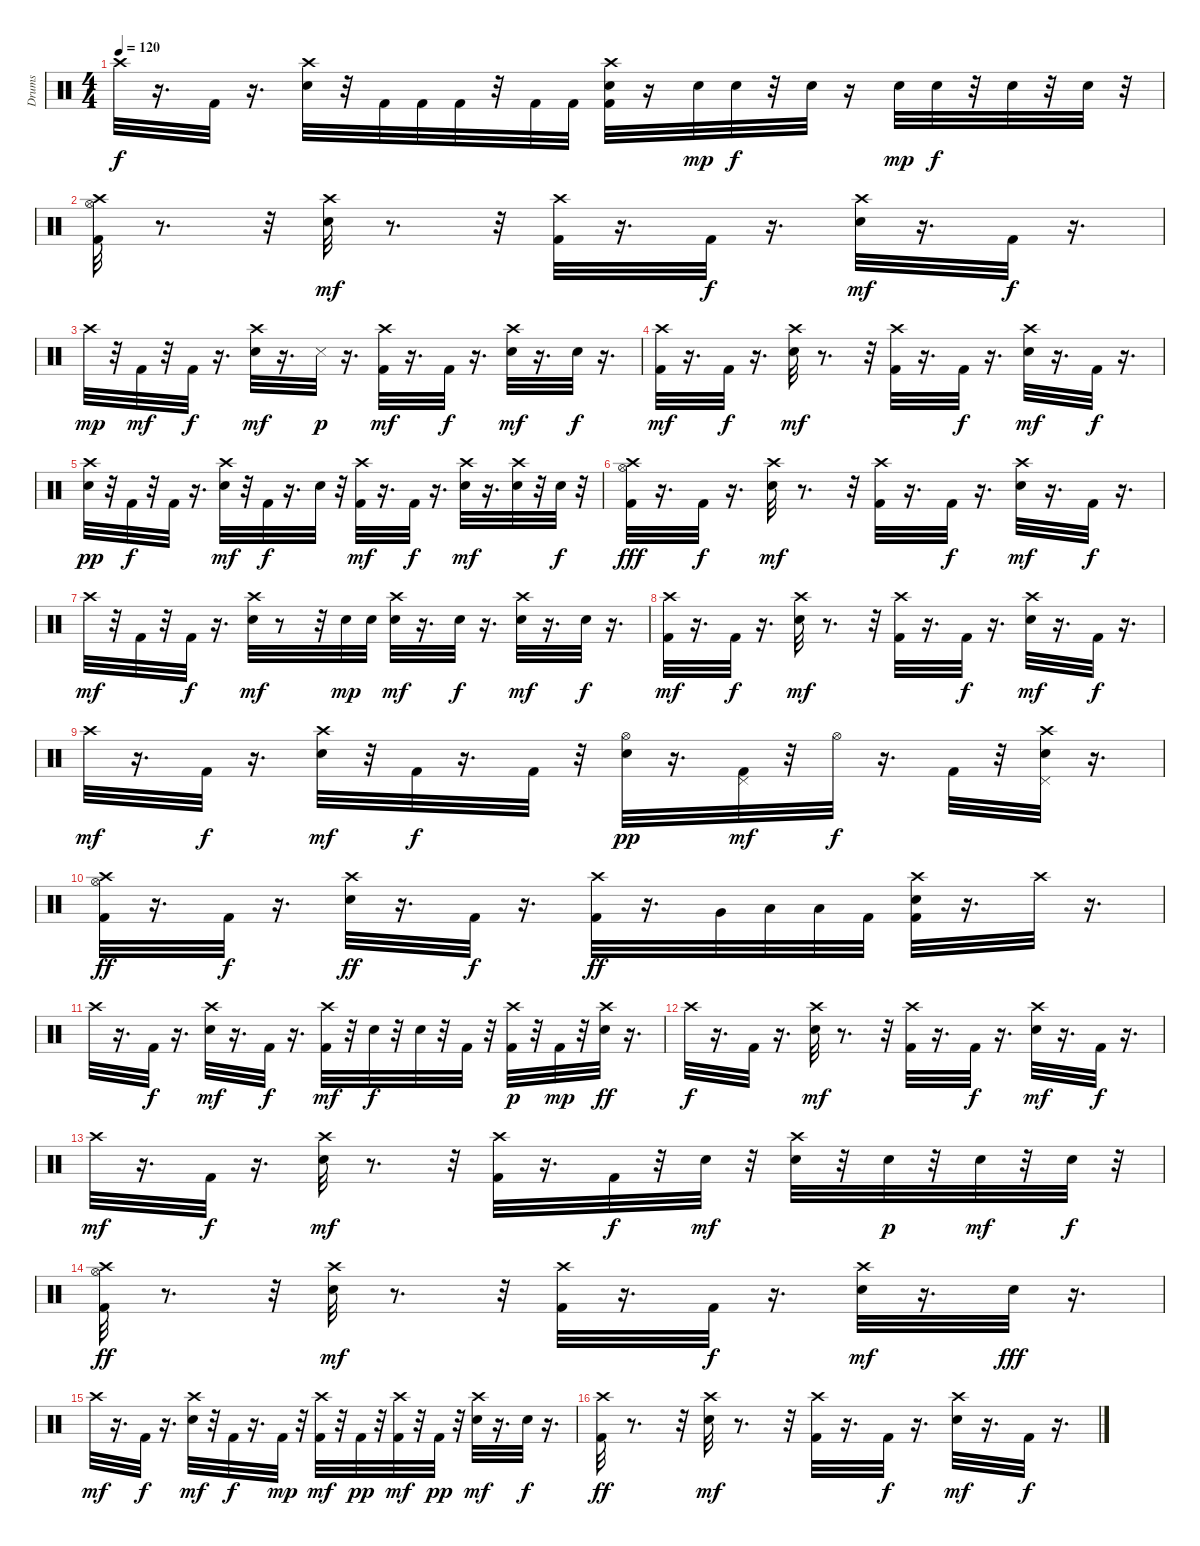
\track ("Drums" "Drums") {instrument percussion}
\staff {score}
\articulation defaults
\ts (4 4)
\tempo 120
\clef neutral
\ks c "Crash high (hit)".32{dy f}
r.16{d} "Kick (hit) 2".32 r.16{d} ("Crash high (hit)" "Snare (hit) 2").32 r.32 "Kick (hit) 2".32 "Kick (hit) 2".32 "Kick (hit) 2".32 r.32 "Kick (hit) 2".32 "Kick (hit) 2".32 ("Crash high (hit)" "Snare (hit) 2" "Kick (hit) 2").32 r.16 "Snare (hit) 2".32{dy mp} "Snare (hit) 2".32{dy f} r.32 "Snare (hit) 2".32 r.16 "Snare (hit) 2".32{dy mp} "Snare (hit) 2".32{dy f} r.32 "Snare (hit) 2".32 r.32 "Snare (hit) 2".32 r.32 |
("Hi-Hat (open)" "Crash high (hit)" "Kick (hit) 2").32 r.8{d} r.32 ("Crash high (hit)" "Snare (hit) 2").32{dy mf} r.8{d} r.32 ("Crash high (hit)" "Kick (hit) 2").32 r.16{d} "Kick (hit) 2".32{dy f} r.16{d} ("Crash high (hit)" "Snare (hit) 2").32{dy mf} r.16{d} "Kick (hit) 2".32{dy f} r.16{d} |
"Crash high (hit)".32{dy mp} r.32 "Kick (hit) 2".32{dy mf} r.32 "Kick (hit) 2".32{dy f} r.16{d} ("Crash high (hit)" "Snare (hit) 2").32{dy mf} r.16{d} "Snare (side stick) 3".32{dy p} r.16{d} ("Crash high (hit)" "Kick (hit) 2").32{dy mf} r.16{d} "Kick (hit) 2".32{dy f} r.16{d} ("Crash high (hit)" "Snare (hit) 2").32{dy mf} r.16{d} "Snare (hit) 2".32{dy f} r.16{d} |
("Crash high (hit)" "Kick (hit) 2").32{dy mf} r.16{d} "Kick (hit) 2".32{dy f} r.16{d} ("Crash high (hit)" "Snare (hit) 2").32{dy mf} r.8{d} r.32 ("Crash high (hit)" "Kick (hit) 2").32 r.16{d} "Kick (hit) 2".32{dy f} r.16{d} ("Crash high (hit)" "Snare (hit) 2").32{dy mf} r.16{d} "Kick (hit) 2".32{dy f} r.16{d} |
("Crash high (hit)" "Snare (hit) 2").32{dy pp} r.32 "Kick (hit) 2".32{dy f} r.32 "Kick (hit) 2".32 r.16{d} ("Crash high (hit)" "Snare (hit) 2").32{dy mf} r.32 "Kick (hit) 2".32{dy f} r.16{d} "Snare (hit) 2".32 r.32 ("Crash high (hit)" "Kick (hit) 2").32{dy mf} r.16{d} "Kick (hit) 2".32{dy f} r.16{d} ("Crash high (hit)" "Snare (hit) 2").32{dy mf} r.16{d} ("Snare (hit) 2" "Crash high (hit)").32 r.32 "Snare (hit) 2".32{dy f} r.32 |
("Hi-Hat (open)" "Crash high (hit)" "Kick (hit) 2").32{dy fff} r.16{d} "Kick (hit) 2".32{dy f} r.16{d} ("Crash high (hit)" "Snare (hit) 2").32{dy mf} r.8{d} r.32 ("Crash high (hit)" "Kick (hit) 2").32 r.16{d} "Kick (hit) 2".32{dy f} r.16{d} ("Crash high (hit)" "Snare (hit) 2").32{dy mf} r.16{d} "Kick (hit) 2".32{dy f} r.16{d} |
"Crash high (hit)".32{dy mf} r.32 "Kick (hit) 2".32 r.32 "Kick (hit) 2".32{dy f} r.16{d} ("Crash high (hit)" "Snare (hit) 2").32{dy mf} r.8 r.32 "Snare (hit) 2".32{dy mp} "Snare (hit) 2".32 ("Snare (hit) 2" "Crash high (hit)").32{dy mf} r.16{d} "Snare (hit) 2".32{dy f} r.16{d} ("Crash high (hit)" "Snare (hit) 2").32{dy mf} r.16{d} "Snare (hit) 2".32{dy f} r.16{d} |
("Crash high (hit)" "Kick (hit) 2").32{dy mf} r.16{d} "Kick (hit) 2".32{dy f} r.16{d} ("Crash high (hit)" "Snare (hit) 2").32{dy mf} r.8{d} r.32 ("Crash high (hit)" "Kick (hit) 2").32 r.16{d} "Kick (hit) 2".32{dy f} r.16{d} ("Crash high (hit)" "Snare (hit) 2").32{dy mf} r.16{d} "Kick (hit) 2".32{dy f} r.16{d} |
"Crash high (hit)".32{dy mf} r.16{d} "Kick (hit) 2".32{dy f} r.16{d} ("Crash high (hit)" "Snare (hit) 2").32{dy mf} r.32 "Kick (hit) 2".32{dy f} r.16{d} "Kick (hit) 2".32 r.32 ("Hi-Hat (open)" "Snare (hit) 2").32{dy pp} r.16{d} ("Pedal Hi-Hat (hit)" "Kick (hit) 2").32{dy mf} r.32 "Hi-Hat (open)".32{dy f} r.16{d} "Kick (hit) 2".32 r.32 ("Pedal Hi-Hat (hit)" "Crash high (hit)" "Snare (hit) 2").32 r.16{d} |
("Hi-Hat (open)" "Crash high (hit)" "Kick (hit) 2").32{dy ff} r.16{d} "Kick (hit) 2".32{dy f} r.16{d} ("Crash high (hit)" "Snare (hit) 2").32{dy ff} r.16{d} "Kick (hit) 2".32{dy f} r.16{d} ("Crash high (hit)" "Kick (hit) 2").32{dy ff} r.16{d} "Very Low Tom (hit)".32 "Low Floor Tom (hit)".32 "Low Floor Tom (hit)".32 "Kick (hit) 2".32 ("Crash high (hit)" "Kick (hit) 2" "Snare (hit) 2").32 r.16{d} "Crash high (hit)".32 r.16{d} |
"Crash high (hit)".32 r.16{d} "Kick (hit) 2".32{dy f} r.16{d} ("Crash high (hit)" "Snare (hit) 2").32{dy mf} r.16{d} "Kick (hit) 2".32{dy f} r.16{d} ("Crash high (hit)" "Kick (hit) 2").32{dy mf} r.32 "Snare (hit) 2".32{dy f} r.32 "Snare (hit) 2".32 r.32 "Kick (hit) 2".32 r.32 ("Crash high (hit)" "Kick (hit) 2").32{dy p} r.32 "Kick (hit) 2".32{dy mp} r.32 ("Crash high (hit)" "Snare (hit) 2").32{dy ff} r.16{d} |
"Crash high (hit)".32{dy f} r.16{d} "Kick (hit) 2".32 r.16{d} ("Crash high (hit)" "Snare (hit) 2").32{dy mf} r.8{d} r.32 ("Crash high (hit)" "Kick (hit) 2").32 r.16{d} "Kick (hit) 2".32{dy f} r.16{d} ("Crash high (hit)" "Snare (hit) 2").32{dy mf} r.16{d} "Kick (hit) 2".32{dy f} r.16{d} |
"Crash high (hit)".32{dy mf} r.16{d} "Kick (hit) 2".32{dy f} r.16{d} ("Crash high (hit)" "Snare (hit) 2").32{dy mf} r.8{d} r.32 ("Crash high (hit)" "Kick (hit) 2").32 r.16{d} "Kick (hit) 2".32{dy f} r.32 "Snare (hit) 2".32{dy mf} r.32 ("Crash high (hit)" "Snare (hit) 2").32 r.32 "Snare (hit) 2".32{dy p} r.32 "Snare (hit) 2".32{dy mf} r.32 "Snare (hit) 2".32{dy f} r.32 |
("Hi-Hat (open)" "Crash high (hit)" "Kick (hit) 2").32{dy ff} r.8{d} r.32 ("Crash high (hit)" "Snare (hit) 2").32{dy mf} r.8{d} r.32 ("Crash high (hit)" "Kick (hit) 2").32 r.16{d} "Kick (hit) 2".32{dy f} r.16{d} ("Crash high (hit)" "Snare (hit) 2").32{dy mf} r.16{d} "Snare (hit) 2".32{dy fff} r.16{d} |
"Crash high (hit)".32{dy mf} r.16{d} "Kick (hit) 2".32{dy f} r.16{d} ("Crash high (hit)" "Snare (hit) 2").32{dy mf} r.32 "Kick (hit) 2".32{dy f} r.16{d} "Kick (hit) 2".32{dy mp} r.32 ("Crash high (hit)" "Kick (hit) 2").32{dy mf} r.32 "Kick (hit) 2".32{dy pp} r.32 ("Crash high (hit)" "Kick (hit) 2").32{dy mf} r.32 "Kick (hit) 2".32{dy pp} r.32 ("Crash high (hit)" "Snare (hit) 2").32{dy mf} r.16{d} "Snare (hit) 2".32{dy f} r.16{d} |
("Kick (hit) 2" "Crash high (hit)").32{dy ff} r.8{d} r.32 ("Crash high (hit)" "Snare (hit) 2").32{dy mf} r.8{d} r.32 ("Crash high (hit)" "Kick (hit) 2").32 r.16{d} "Kick (hit) 2".32{dy f} r.16{d} ("Crash high (hit)" "Snare (hit) 2").32{dy mf} r.16{d} "Kick (hit) 2".32{dy f} r.16{d}
